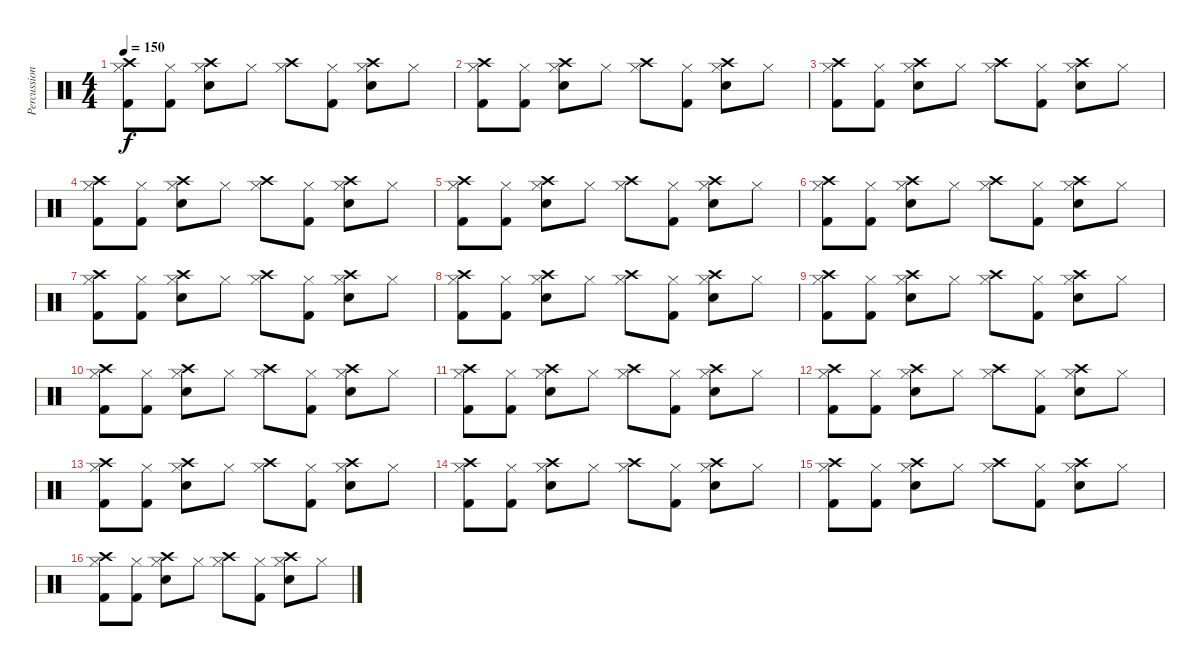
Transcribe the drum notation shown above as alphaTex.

\track ("Percussion" "Percussion") {instrument percussion}
\staff {score}
\articulation defaults
\ts (4 4)
\tempo 150
\clef neutral
\ks c
("Hi-Hat (closed)" "Kick (hit) 2" "Crash high (hit)").8{dy f} ("Hi-Hat (closed)" "Kick (hit) 2").8 ("Hi-Hat (closed)" "Electric Snare (hit)" "Crash high (hit)").8 "Hi-Hat (closed)".8 ("Hi-Hat (closed)" "Crash high (hit)").8 ("Hi-Hat (closed)" "Kick (hit) 2").8 ("Hi-Hat (closed)" "Electric Snare (hit)" "Crash high (hit)").8 "Hi-Hat (closed)".8 |
("Hi-Hat (closed)" "Kick (hit) 2" "Crash high (hit)").8 ("Hi-Hat (closed)" "Kick (hit) 2").8 ("Hi-Hat (closed)" "Electric Snare (hit)" "Crash high (hit)").8 "Hi-Hat (closed)".8 ("Hi-Hat (closed)" "Crash high (hit)").8 ("Hi-Hat (closed)" "Kick (hit) 2").8 ("Hi-Hat (closed)" "Electric Snare (hit)" "Crash high (hit)").8 "Hi-Hat (closed)".8 |
("Hi-Hat (closed)" "Kick (hit) 2" "Crash high (hit)").8 ("Hi-Hat (closed)" "Kick (hit) 2").8 ("Hi-Hat (closed)" "Electric Snare (hit)" "Crash high (hit)").8 "Hi-Hat (closed)".8 ("Hi-Hat (closed)" "Crash high (hit)").8 ("Hi-Hat (closed)" "Kick (hit) 2").8 ("Hi-Hat (closed)" "Electric Snare (hit)" "Crash high (hit)").8 "Hi-Hat (closed)".8 |
("Hi-Hat (closed)" "Kick (hit) 2" "Crash high (hit)").8 ("Hi-Hat (closed)" "Kick (hit) 2").8 ("Hi-Hat (closed)" "Electric Snare (hit)" "Crash high (hit)").8 "Hi-Hat (closed)".8 ("Hi-Hat (closed)" "Crash high (hit)").8 ("Hi-Hat (closed)" "Kick (hit) 2").8 ("Hi-Hat (closed)" "Electric Snare (hit)" "Crash high (hit)").8 "Hi-Hat (closed)".8 |
("Hi-Hat (closed)" "Kick (hit) 2" "Crash high (hit)").8 ("Hi-Hat (closed)" "Kick (hit) 2").8 ("Hi-Hat (closed)" "Electric Snare (hit)" "Crash high (hit)").8 "Hi-Hat (closed)".8 ("Hi-Hat (closed)" "Crash high (hit)").8 ("Hi-Hat (closed)" "Kick (hit) 2").8 ("Hi-Hat (closed)" "Electric Snare (hit)" "Crash high (hit)").8 "Hi-Hat (closed)".8 |
("Hi-Hat (closed)" "Kick (hit) 2" "Crash high (hit)").8 ("Hi-Hat (closed)" "Kick (hit) 2").8 ("Hi-Hat (closed)" "Electric Snare (hit)" "Crash high (hit)").8 "Hi-Hat (closed)".8 ("Hi-Hat (closed)" "Crash high (hit)").8 ("Hi-Hat (closed)" "Kick (hit) 2").8 ("Hi-Hat (closed)" "Electric Snare (hit)" "Crash high (hit)").8 "Hi-Hat (closed)".8 |
("Hi-Hat (closed)" "Kick (hit) 2" "Crash high (hit)").8 ("Hi-Hat (closed)" "Kick (hit) 2").8 ("Hi-Hat (closed)" "Electric Snare (hit)" "Crash high (hit)").8 "Hi-Hat (closed)".8 ("Hi-Hat (closed)" "Crash high (hit)").8 ("Hi-Hat (closed)" "Kick (hit) 2").8 ("Hi-Hat (closed)" "Electric Snare (hit)" "Crash high (hit)").8 "Hi-Hat (closed)".8 |
("Hi-Hat (closed)" "Kick (hit) 2" "Crash high (hit)").8 ("Hi-Hat (closed)" "Kick (hit) 2").8 ("Hi-Hat (closed)" "Electric Snare (hit)" "Crash high (hit)").8 "Hi-Hat (closed)".8 ("Hi-Hat (closed)" "Crash high (hit)").8 ("Hi-Hat (closed)" "Kick (hit) 2").8 ("Hi-Hat (closed)" "Electric Snare (hit)" "Crash high (hit)").8 "Hi-Hat (closed)".8 |
("Hi-Hat (closed)" "Kick (hit) 2" "Crash high (hit)").8 ("Hi-Hat (closed)" "Kick (hit) 2").8 ("Hi-Hat (closed)" "Electric Snare (hit)" "Crash high (hit)").8 "Hi-Hat (closed)".8 ("Hi-Hat (closed)" "Crash high (hit)").8 ("Hi-Hat (closed)" "Kick (hit) 2").8 ("Hi-Hat (closed)" "Electric Snare (hit)" "Crash high (hit)").8 "Hi-Hat (closed)".8 |
("Hi-Hat (closed)" "Kick (hit) 2" "Crash high (hit)").8 ("Hi-Hat (closed)" "Kick (hit) 2").8 ("Hi-Hat (closed)" "Electric Snare (hit)" "Crash high (hit)").8 "Hi-Hat (closed)".8 ("Hi-Hat (closed)" "Crash high (hit)").8 ("Hi-Hat (closed)" "Kick (hit) 2").8 ("Hi-Hat (closed)" "Electric Snare (hit)" "Crash high (hit)").8 "Hi-Hat (closed)".8 |
("Hi-Hat (closed)" "Kick (hit) 2" "Crash high (hit)").8 ("Hi-Hat (closed)" "Kick (hit) 2").8 ("Hi-Hat (closed)" "Electric Snare (hit)" "Crash high (hit)").8 "Hi-Hat (closed)".8 ("Hi-Hat (closed)" "Crash high (hit)").8 ("Hi-Hat (closed)" "Kick (hit) 2").8 ("Hi-Hat (closed)" "Electric Snare (hit)" "Crash high (hit)").8 "Hi-Hat (closed)".8 |
("Hi-Hat (closed)" "Kick (hit) 2" "Crash high (hit)").8 ("Hi-Hat (closed)" "Kick (hit) 2").8 ("Hi-Hat (closed)" "Electric Snare (hit)" "Crash high (hit)").8 "Hi-Hat (closed)".8 ("Hi-Hat (closed)" "Crash high (hit)").8 ("Hi-Hat (closed)" "Kick (hit) 2").8 ("Hi-Hat (closed)" "Electric Snare (hit)" "Crash high (hit)").8 "Hi-Hat (closed)".8 |
("Hi-Hat (closed)" "Kick (hit) 2" "Crash high (hit)").8 ("Hi-Hat (closed)" "Kick (hit) 2").8 ("Hi-Hat (closed)" "Electric Snare (hit)" "Crash high (hit)").8 "Hi-Hat (closed)".8 ("Hi-Hat (closed)" "Crash high (hit)").8 ("Hi-Hat (closed)" "Kick (hit) 2").8 ("Hi-Hat (closed)" "Electric Snare (hit)" "Crash high (hit)").8 "Hi-Hat (closed)".8 |
("Hi-Hat (closed)" "Kick (hit) 2" "Crash high (hit)").8 ("Hi-Hat (closed)" "Kick (hit) 2").8 ("Hi-Hat (closed)" "Electric Snare (hit)" "Crash high (hit)").8 "Hi-Hat (closed)".8 ("Hi-Hat (closed)" "Crash high (hit)").8 ("Hi-Hat (closed)" "Kick (hit) 2").8 ("Hi-Hat (closed)" "Electric Snare (hit)" "Crash high (hit)").8 "Hi-Hat (closed)".8 |
("Hi-Hat (closed)" "Kick (hit) 2" "Crash high (hit)").8 ("Hi-Hat (closed)" "Kick (hit) 2").8 ("Hi-Hat (closed)" "Electric Snare (hit)" "Crash high (hit)").8 "Hi-Hat (closed)".8 ("Hi-Hat (closed)" "Crash high (hit)").8 ("Hi-Hat (closed)" "Kick (hit) 2").8 ("Hi-Hat (closed)" "Electric Snare (hit)" "Crash high (hit)").8 "Hi-Hat (closed)".8 |
("Hi-Hat (closed)" "Kick (hit) 2" "Crash high (hit)").8 ("Hi-Hat (closed)" "Kick (hit) 2").8 ("Hi-Hat (closed)" "Electric Snare (hit)" "Crash high (hit)").8 "Hi-Hat (closed)".8 ("Hi-Hat (closed)" "Crash high (hit)").8 ("Hi-Hat (closed)" "Kick (hit) 2").8 ("Hi-Hat (closed)" "Electric Snare (hit)" "Crash high (hit)").8 "Hi-Hat (closed)".8
